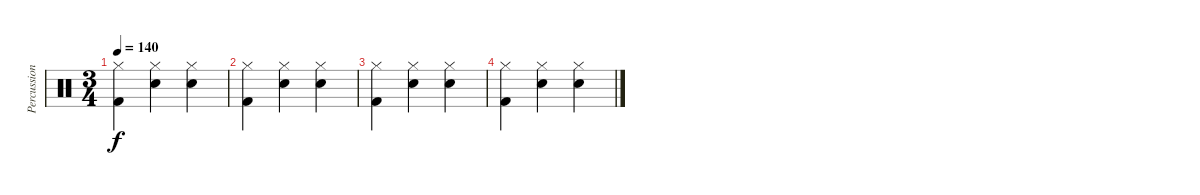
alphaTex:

\track ("Percussion" "Percussion") {instrument percussion}
\staff {score}
\articulation defaults
\ts (3 4)
\tempo 140
\clef neutral
\ks c
("Hi-Hat (closed)" "Kick (hit) 2").4{dy f} ("Snare (hit) 2" "Hi-Hat (closed)").4 ("Snare (hit) 2" "Hi-Hat (closed)").4 |
("Hi-Hat (closed)" "Kick (hit) 2").4 ("Snare (hit) 2" "Hi-Hat (closed)").4 ("Snare (hit) 2" "Hi-Hat (closed)").4 |
("Hi-Hat (closed)" "Kick (hit) 2").4 ("Snare (hit) 2" "Hi-Hat (closed)").4 ("Snare (hit) 2" "Hi-Hat (closed)").4 |
("Hi-Hat (closed)" "Kick (hit) 2").4 ("Snare (hit) 2" "Hi-Hat (closed)").4 ("Snare (hit) 2" "Hi-Hat (closed)").4
